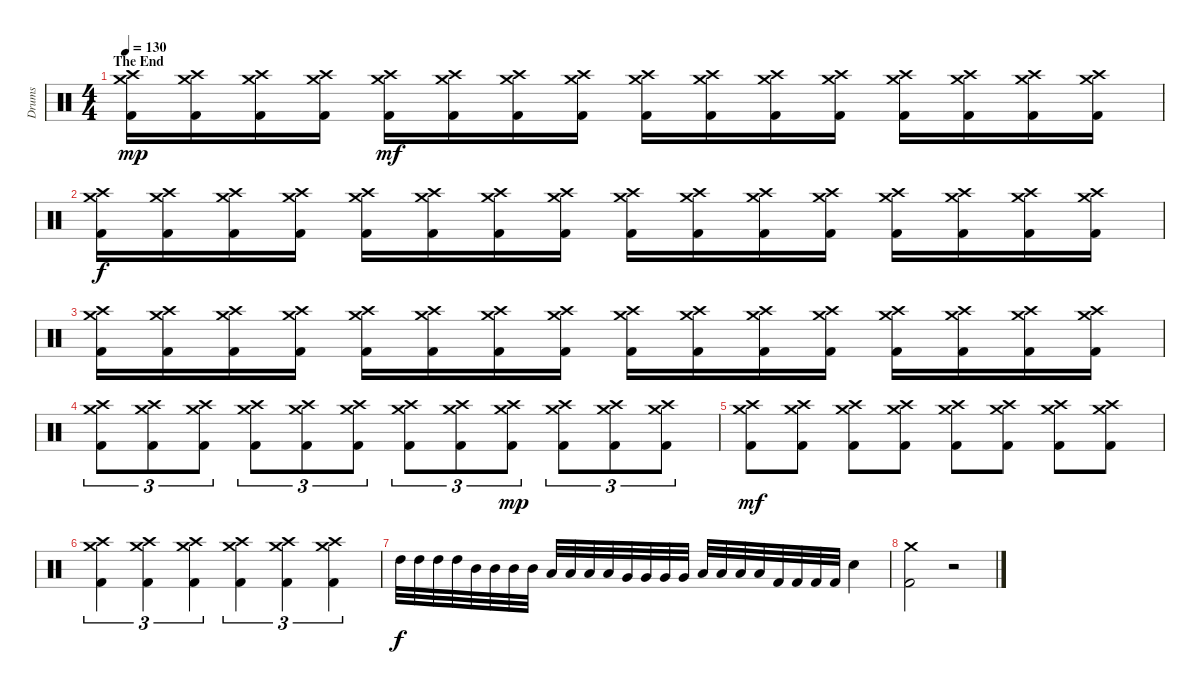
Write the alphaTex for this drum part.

\track ("Drums" "Drums") {instrument percussion}
\staff {score}
\articulation defaults
\ts (4 4)
\section ("" "The End")
\tempo 130
\clef neutral
\ks c
("Crash medium (hit)" "Crash high (hit)" "Kick (hit) 2").16{dy mp} ("Crash medium (hit)" "Crash high (hit)" "Kick (hit) 2").16 ("Crash medium (hit)" "Crash high (hit)" "Kick (hit) 2").16 ("Crash medium (hit)" "Crash high (hit)" "Kick (hit) 2").16 ("Crash medium (hit)" "Crash high (hit)" "Kick (hit) 2").16{dy mf} ("Crash medium (hit)" "Crash high (hit)" "Kick (hit) 2").16 ("Crash medium (hit)" "Crash high (hit)" "Kick (hit) 2").16 ("Crash medium (hit)" "Crash high (hit)" "Kick (hit) 2").16 ("Crash medium (hit)" "Crash high (hit)" "Kick (hit) 2").16 ("Crash medium (hit)" "Crash high (hit)" "Kick (hit) 2").16 ("Crash medium (hit)" "Crash high (hit)" "Kick (hit) 2").16 ("Crash medium (hit)" "Crash high (hit)" "Kick (hit) 2").16 ("Crash medium (hit)" "Crash high (hit)" "Kick (hit) 2").16 ("Crash medium (hit)" "Crash high (hit)" "Kick (hit) 2").16 ("Crash medium (hit)" "Crash high (hit)" "Kick (hit) 2").16 ("Crash medium (hit)" "Crash high (hit)" "Kick (hit) 2").16 |
("Crash medium (hit)" "Crash high (hit)" "Kick (hit) 2").16{dy f} ("Crash medium (hit)" "Crash high (hit)" "Kick (hit) 2").16 ("Crash medium (hit)" "Crash high (hit)" "Kick (hit) 2").16 ("Crash medium (hit)" "Crash high (hit)" "Kick (hit) 2").16 ("Crash medium (hit)" "Crash high (hit)" "Kick (hit) 2").16 ("Crash medium (hit)" "Crash high (hit)" "Kick (hit) 2").16 ("Crash medium (hit)" "Crash high (hit)" "Kick (hit) 2").16 ("Crash medium (hit)" "Crash high (hit)" "Kick (hit) 2").16 ("Crash medium (hit)" "Crash high (hit)" "Kick (hit) 2").16 ("Crash medium (hit)" "Crash high (hit)" "Kick (hit) 2").16 ("Crash medium (hit)" "Crash high (hit)" "Kick (hit) 2").16 ("Crash medium (hit)" "Crash high (hit)" "Kick (hit) 2").16 ("Crash medium (hit)" "Crash high (hit)" "Kick (hit) 2").16 ("Crash medium (hit)" "Crash high (hit)" "Kick (hit) 2").16 ("Crash medium (hit)" "Crash high (hit)" "Kick (hit) 2").16 ("Crash medium (hit)" "Crash high (hit)" "Kick (hit) 2").16 |
("Crash medium (hit)" "Crash high (hit)" "Kick (hit) 2").16 ("Crash medium (hit)" "Crash high (hit)" "Kick (hit) 2").16 ("Crash medium (hit)" "Crash high (hit)" "Kick (hit) 2").16 ("Crash medium (hit)" "Crash high (hit)" "Kick (hit) 2").16 ("Crash medium (hit)" "Crash high (hit)" "Kick (hit) 2").16 ("Crash medium (hit)" "Crash high (hit)" "Kick (hit) 2").16 ("Crash medium (hit)" "Crash high (hit)" "Kick (hit) 2").16 ("Crash medium (hit)" "Crash high (hit)" "Kick (hit) 2").16 ("Crash medium (hit)" "Crash high (hit)" "Kick (hit) 2").16 ("Crash medium (hit)" "Crash high (hit)" "Kick (hit) 2").16 ("Crash medium (hit)" "Crash high (hit)" "Kick (hit) 2").16 ("Crash medium (hit)" "Crash high (hit)" "Kick (hit) 2").16 ("Crash medium (hit)" "Crash high (hit)" "Kick (hit) 2").16 ("Crash medium (hit)" "Crash high (hit)" "Kick (hit) 2").16 ("Crash medium (hit)" "Crash high (hit)" "Kick (hit) 2").16 ("Crash medium (hit)" "Crash high (hit)" "Kick (hit) 2").16 |
("Crash medium (hit)" "Crash high (hit)" "Kick (hit) 2").8{tu (3 2)} ("Crash medium (hit)" "Crash high (hit)" "Kick (hit) 2").8{tu (3 2)} ("Crash medium (hit)" "Crash high (hit)" "Kick (hit) 2").8{tu (3 2)} ("Crash medium (hit)" "Crash high (hit)" "Kick (hit) 2").8{tu (3 2)} ("Crash medium (hit)" "Crash high (hit)" "Kick (hit) 2").8{tu (3 2)} ("Crash medium (hit)" "Crash high (hit)" "Kick (hit) 2").8{tu (3 2)} ("Crash medium (hit)" "Crash high (hit)" "Kick (hit) 2").8{tu (3 2)} ("Crash medium (hit)" "Crash high (hit)" "Kick (hit) 2").8{tu (3 2)} ("Crash medium (hit)" "Crash high (hit)" "Kick (hit) 2").8{tu (3 2) dy mp} ("Crash medium (hit)" "Crash high (hit)" "Kick (hit) 2").8{tu (3 2)} ("Crash medium (hit)" "Crash high (hit)" "Kick (hit) 2").8{tu (3 2)} ("Crash medium (hit)" "Crash high (hit)" "Kick (hit) 2").8{tu (3 2)} |
("Crash medium (hit)" "Crash high (hit)" "Kick (hit) 2").8{dy mf} ("Crash medium (hit)" "Crash high (hit)" "Kick (hit) 2").8 ("Crash medium (hit)" "Crash high (hit)" "Kick (hit) 2").8 ("Crash medium (hit)" "Crash high (hit)" "Kick (hit) 2").8 ("Crash medium (hit)" "Crash high (hit)" "Kick (hit) 2").8 ("Crash medium (hit)" "Crash high (hit)" "Kick (hit) 2").8 ("Crash medium (hit)" "Crash high (hit)" "Kick (hit) 2").8 ("Crash medium (hit)" "Crash high (hit)" "Kick (hit) 2").8 |
("Crash medium (hit)" "Crash high (hit)" "Kick (hit) 2").4{tu (3 2)} ("Crash medium (hit)" "Crash high (hit)" "Kick (hit) 2").4{tu (3 2)} ("Crash medium (hit)" "Crash high (hit)" "Kick (hit) 2").4{tu (3 2)} ("Crash medium (hit)" "Crash high (hit)" "Kick (hit) 2").4{tu (3 2)} ("Crash medium (hit)" "Crash high (hit)" "Kick (hit) 2").4{tu (3 2)} ("Crash medium (hit)" "Crash high (hit)" "Kick (hit) 2").4{tu (3 2)} |
"High Tom (hit)".32{dy f} "High Tom (hit)".32 "High Tom (hit)".32 "High Tom (hit)".32 "Mid Tom (hit)".32 "Mid Tom (hit)".32 "Mid Tom (hit)".32 "Mid Tom (hit)".32 "Low Tom (hit)".32 "Low Tom (hit)".32 "Low Tom (hit)".32 "Low Tom (hit)".32 "Very Low Tom (hit)".32 "Very Low Tom (hit)".32 "Very Low Tom (hit)".32 "Very Low Tom (hit)".32 "Low Floor Tom (hit)".32 "Low Floor Tom (hit)".32 "Low Floor Tom (hit)".32 "Low Floor Tom (hit)".32 "Kick (hit) 2".32 "Kick (hit) 2".32 "Kick (hit) 2".32 "Kick (hit) 2".32 "Snare (hit) 2".4 |
("Crash medium (hit)" "Kick (hit) 2").2 r.2
